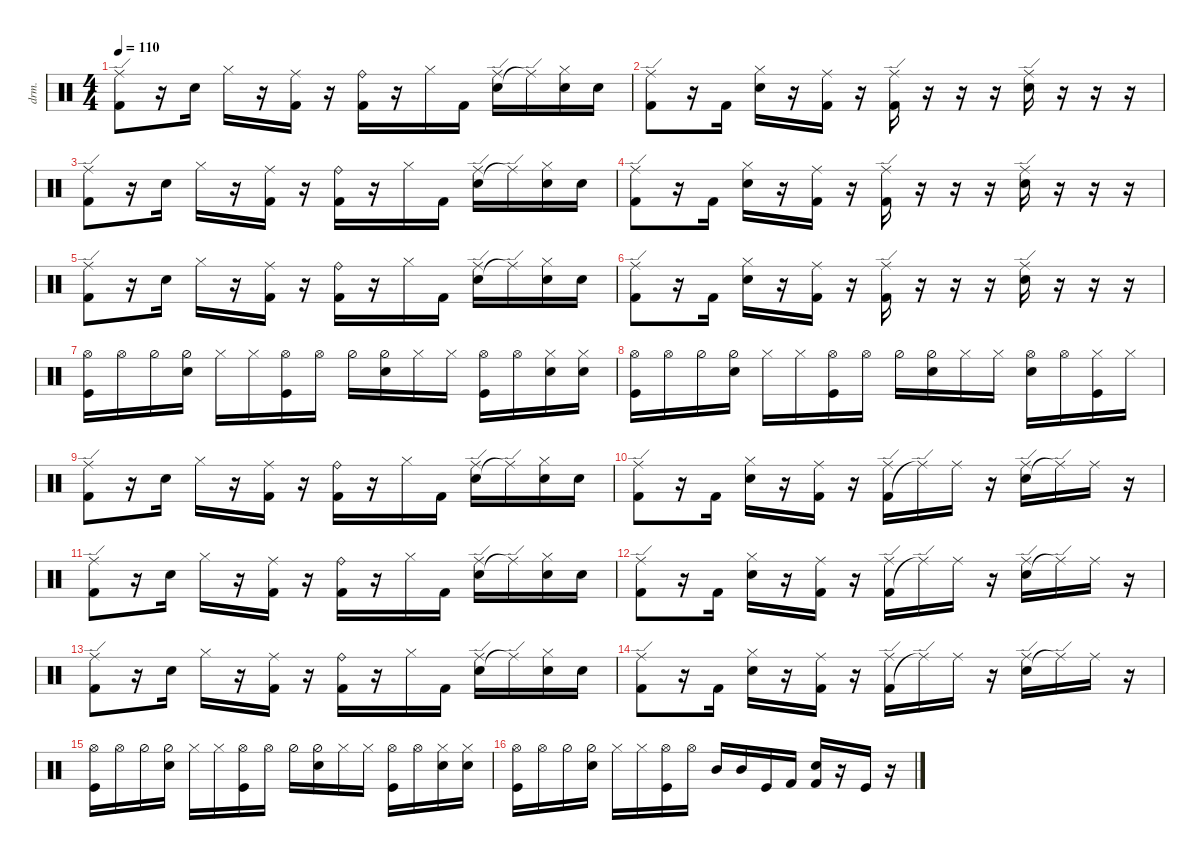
\defaultSystemsLayout 4
\hideDynamics
\bracketExtendMode nobrackets
\otherSystemsTrackNameOrientation horizontal
\track ("Drumkit" "drm.") {instrument percussion}
\staff {score}
\articulation defaults
\ts (4 4)
\tempo 110
\clef neutral
\ks c
("Kick (hit) 2" "Ride (edge)").8{dy mf beam Down} r.16{beam Down} "Snare (hit) 2".16{beam Down} "Hi-Hat (closed)".16{beam Down} r.16{beam Down} ("Kick (hit) 2" "Ride (middle)").16{beam Down} r.16{beam Down} ("Kick (hit) 2" "Ride (bell)").16{beam Down} r.16{beam Down} "Hi-Hat (closed)".16{beam Down} "Kick (hit) 2".16{beam Down} ("Snare (hit) 2" "Ride (edge)").16{beam Down} "Ride (edge)"{t}.16{beam Down} ("Snare (hit) 2" "Hi-Hat (closed)").16{beam Down} "Snare (hit) 2".16{beam Down} |
("Kick (hit) 2" "Ride (edge)").8{beam Down} r.16{beam Down} "Kick (hit) 2".16{beam Down} ("Snare (hit) 2" "Hi-Hat (closed)").16{beam Down} r.16{beam Down} ("Kick (hit) 2" "Ride (middle)").16{beam Down} r.16{beam Down} ("Kick (hit) 2" "Ride (edge)").16{beam Down} r.16{beam Down} r.16{beam Down} r.16{beam Down} ("Snare (hit) 2" "Ride (edge)").16{beam Down} r.16{beam Down} r.16{beam Down} r.16{beam Down} |
("Kick (hit) 2" "Ride (edge)").8{beam Down} r.16{beam Down} "Snare (hit) 2".16{beam Down} "Hi-Hat (closed)".16{beam Down} r.16{beam Down} ("Kick (hit) 2" "Ride (middle)").16{beam Down} r.16{beam Down} ("Kick (hit) 2" "Ride (bell)").16{beam Down} r.16{beam Down} "Hi-Hat (closed)".16{beam Down} "Kick (hit) 2".16{beam Down} ("Snare (hit) 2" "Ride (edge)").16{beam Down} "Ride (edge)"{t}.16{beam Down} ("Snare (hit) 2" "Hi-Hat (closed)").16{beam Down} "Snare (hit) 2".16{beam Down} |
("Kick (hit) 2" "Ride (edge)").8{beam Down} r.16{beam Down} "Kick (hit) 2".16{beam Down} ("Snare (hit) 2" "Hi-Hat (closed)").16{beam Down} r.16{beam Down} ("Kick (hit) 2" "Ride (middle)").16{beam Down} r.16{beam Down} ("Kick (hit) 2" "Ride (edge)").16{beam Down} r.16{beam Down} r.16{beam Down} r.16{beam Down} ("Snare (hit) 2" "Ride (edge)").16{beam Down} r.16{beam Down} r.16{beam Down} r.16{beam Down} |
("Kick (hit) 2" "Ride (edge)").8{beam Down} r.16{beam Down} "Snare (hit) 2".16{beam Down} "Hi-Hat (closed)".16{beam Down} r.16{beam Down} ("Kick (hit) 2" "Ride (middle)").16{beam Down} r.16{beam Down} ("Kick (hit) 2" "Ride (bell)").16{beam Down} r.16{beam Down} "Hi-Hat (closed)".16{beam Down} "Kick (hit) 2".16{beam Down} ("Snare (hit) 2" "Ride (edge)").16{beam Down} "Ride (edge)"{t}.16{beam Down} ("Snare (hit) 2" "Hi-Hat (closed)").16{beam Down} "Snare (hit) 2".16{beam Down} |
("Kick (hit) 2" "Ride (edge)").8{beam Down} r.16{beam Down} "Kick (hit) 2".16{beam Down} ("Snare (hit) 2" "Hi-Hat (closed)").16{beam Down} r.16{beam Down} ("Kick (hit) 2" "Ride (middle)").16{beam Down} r.16{beam Down} ("Kick (hit) 2" "Ride (edge)").16{beam Down} r.16{beam Down} r.16{beam Down} r.16{beam Down} ("Snare (hit) 2" "Ride (edge)").16{beam Down} r.16{beam Down} r.16{beam Down} r.16{beam Down} |
("Hi-Hat (open)" "Kick (hit)").16{beam Down} "Hi-Hat (open)".16{beam Down} "Hi-Hat (half)".16{beam Down} ("Hi-Hat (half)" "Snare (hit) 2").16{beam Down} "Hi-Hat (closed)".16{beam Down} "Hi-Hat (closed)".16{beam Down} ("Hi-Hat (open)" "Kick (hit)").16{beam Down} "Hi-Hat (open)".16{beam Down} "Hi-Hat (half)".16{beam Down} ("Snare (hit) 2" "Hi-Hat (half)").16{beam Down} "Hi-Hat (closed)".16{beam Down} "Hi-Hat (closed)".16{beam Down} ("Hi-Hat (open)" "Kick (hit)").16{beam Down} "Hi-Hat (open)".16{beam Down} ("Snare (hit) 2" "Hi-Hat (closed)").16{beam Down} ("Hi-Hat (closed)" "Snare (hit) 2").16{beam Down} |
("Hi-Hat (open)" "Kick (hit)").16{beam Down} "Hi-Hat (open)".16{beam Down} "Hi-Hat (half)".16{beam Down} ("Hi-Hat (half)" "Snare (hit) 2").16{beam Down} "Hi-Hat (closed)".16{beam Down} "Hi-Hat (closed)".16{beam Down} ("Hi-Hat (open)" "Kick (hit)").16{beam Down} "Hi-Hat (open)".16{beam Down} "Hi-Hat (half)".16{beam Down} ("Snare (hit) 2" "Hi-Hat (half)").16{beam Down} "Hi-Hat (closed)".16{beam Down} "Hi-Hat (closed)".16{beam Down} ("Hi-Hat (open)" "Snare (hit) 2").16{beam Down} "Hi-Hat (open)".16{beam Down} ("Hi-Hat (closed)" "Kick (hit)").16{beam Down} "Hi-Hat (closed)".16{beam Down} |
("Kick (hit) 2" "Ride (edge)").8{beam Down} r.16{beam Down} "Snare (hit) 2".16{beam Down} "Hi-Hat (closed)".16{beam Down} r.16{beam Down} ("Kick (hit) 2" "Ride (middle)").16{beam Down} r.16{beam Down} ("Kick (hit) 2" "Ride (bell)").16{beam Down} r.16{beam Down} "Hi-Hat (closed)".16{beam Down} "Kick (hit) 2".16{beam Down} ("Snare (hit) 2" "Ride (edge)").16{beam Down} "Ride (edge)"{t}.16{beam Down} ("Snare (hit) 2" "Hi-Hat (closed)").16{beam Down} "Snare (hit) 2".16{beam Down} |
("Kick (hit) 2" "Ride (edge)").8{beam Down} r.16{beam Down} "Kick (hit) 2".16{beam Down} ("Snare (hit) 2" "Hi-Hat (closed)").16{beam Down} r.16{beam Down} ("Kick (hit) 2" "Ride (middle)").16{beam Down} r.16{beam Down} ("Kick (hit) 2" "Ride (edge)").16{beam Down} "Ride (edge)"{t}.16{beam Down} "Ride (middle)".16{beam Down} r.16{beam Down} ("Snare (hit) 2" "Ride (edge)").16{beam Down} "Ride (edge)"{t}.16{beam Down} "Ride (middle)".16{beam Down} r.16{beam Down} |
("Kick (hit) 2" "Ride (edge)").8{beam Down} r.16{beam Down} "Snare (hit) 2".16{beam Down} "Hi-Hat (closed)".16{beam Down} r.16{beam Down} ("Kick (hit) 2" "Ride (middle)").16{beam Down} r.16{beam Down} ("Kick (hit) 2" "Ride (bell)").16{beam Down} r.16{beam Down} "Hi-Hat (closed)".16{beam Down} "Kick (hit) 2".16{beam Down} ("Snare (hit) 2" "Ride (edge)").16{beam Down} "Ride (edge)"{t}.16{beam Down} ("Snare (hit) 2" "Hi-Hat (closed)").16{beam Down} "Snare (hit) 2".16{beam Down} |
("Kick (hit) 2" "Ride (edge)").8{beam Down} r.16{beam Down} "Kick (hit) 2".16{beam Down} ("Snare (hit) 2" "Hi-Hat (closed)").16{beam Down} r.16{beam Down} ("Kick (hit) 2" "Ride (middle)").16{beam Down} r.16{beam Down} ("Kick (hit) 2" "Ride (edge)").16{beam Down} "Ride (edge)"{t}.16{beam Down} "Ride (middle)".16{beam Down} r.16{beam Down} ("Snare (hit) 2" "Ride (edge)").16{beam Down} "Ride (edge)"{t}.16{beam Down} "Ride (middle)".16{beam Down} r.16{beam Down} |
("Kick (hit) 2" "Ride (edge)").8{beam Down} r.16{beam Down} "Snare (hit) 2".16{beam Down} "Hi-Hat (closed)".16{beam Down} r.16{beam Down} ("Kick (hit) 2" "Ride (middle)").16{beam Down} r.16{beam Down} ("Kick (hit) 2" "Ride (bell)").16{beam Down} r.16{beam Down} "Hi-Hat (closed)".16{beam Down} "Kick (hit) 2".16{beam Down} ("Snare (hit) 2" "Ride (edge)").16{beam Down} "Ride (edge)"{t}.16{beam Down} ("Snare (hit) 2" "Hi-Hat (closed)").16{beam Down} "Snare (hit) 2".16{beam Down} |
("Kick (hit) 2" "Ride (edge)").8{beam Down} r.16{beam Down} "Kick (hit) 2".16{beam Down} ("Snare (hit) 2" "Hi-Hat (closed)").16{beam Down} r.16{beam Down} ("Kick (hit) 2" "Ride (middle)").16{beam Down} r.16{beam Down} ("Kick (hit) 2" "Ride (edge)").16{beam Down} "Ride (edge)"{t}.16{beam Down} "Ride (middle)".16{beam Down} r.16{beam Down} ("Snare (hit) 2" "Ride (edge)").16{beam Down} "Ride (edge)"{t}.16{beam Down} "Ride (middle)".16{beam Down} r.16{beam Down} |
("Hi-Hat (open)" "Kick (hit)").16{beam Down} "Hi-Hat (open)".16{beam Down} "Hi-Hat (half)".16{beam Down} ("Hi-Hat (half)" "Snare (hit) 2").16{beam Down} "Hi-Hat (closed)".16{beam Down} "Hi-Hat (closed)".16{beam Down} ("Hi-Hat (open)" "Kick (hit)").16{beam Down} "Hi-Hat (open)".16{beam Down} "Hi-Hat (half)".16{beam Down} ("Snare (hit) 2" "Hi-Hat (half)").16{beam Down} "Hi-Hat (closed)".16{beam Down} "Hi-Hat (closed)".16{beam Down} ("Hi-Hat (open)" "Kick (hit)").16{beam Down} "Hi-Hat (open)".16{beam Down} ("Snare (hit) 2" "Hi-Hat (closed)").16{beam Down} ("Hi-Hat (closed)" "Snare (hit) 2").16{beam Down} |
("Hi-Hat (open)" "Kick (hit)").16{beam Down} "Hi-Hat (open)".16{beam Down} "Hi-Hat (half)".16{beam Down} ("Hi-Hat (half)" "Snare (hit) 2").16{beam Down} "Hi-Hat (closed)".16{beam Down} "Hi-Hat (closed)".16{beam Down} ("Hi-Hat (open)" "Kick (hit)").16{beam Down} "Hi-Hat (open)".16{beam Down} "Mid Tom (hit)".16{beam Up} "Mid Tom (hit)".16{beam Up} "Kick (hit)".16{beam Up} "Kick (hit) 2".16{beam Up} ("Kick (hit) 2" "Snare (hit) 2").16{beam Up} r.16{beam Up} "Kick (hit)".16{beam Up} r.16{beam Up}
